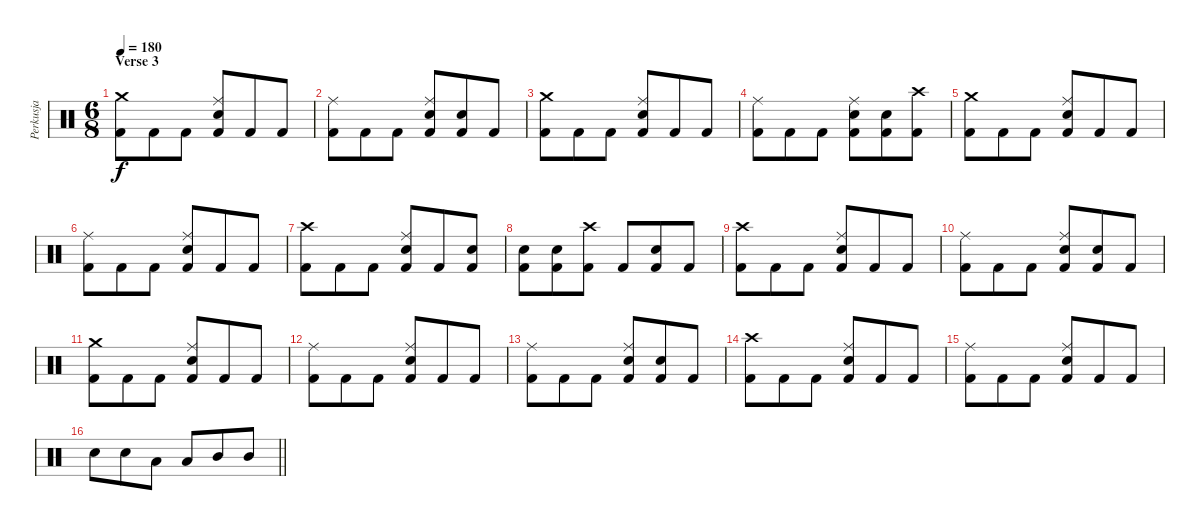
\track ("Perkusja" "Perkusja") {instrument percussion}
\staff {score}
\articulation defaults
\ts (6 8)
\section ("" "Verse 3")
\tempo 180
\clef neutral
\ks c
("Crash medium (hit)" "Kick (hit) 2").8{dy f} "Kick (hit) 2".8 "Kick (hit) 2".8 ("Ride (middle)" "Snare (hit) 2" "Kick (hit) 2").8 "Kick (hit) 2".8 "Kick (hit) 2".8 |
("Ride (middle)" "Kick (hit) 2").8 "Kick (hit) 2".8 "Kick (hit) 2".8 ("Ride (middle)" "Snare (hit) 2" "Kick (hit) 2").8 ("Snare (hit) 2" "Kick (hit) 2").8 "Kick (hit) 2".8 |
("Crash medium (hit)" "Kick (hit) 2").8 "Kick (hit) 2".8 "Kick (hit) 2".8 ("Ride (middle)" "Snare (hit) 2" "Kick (hit) 2").8 "Kick (hit) 2".8 "Kick (hit) 2".8 |
("Ride (middle)" "Kick (hit) 2").8 "Kick (hit) 2".8 "Kick (hit) 2".8 ("Ride (middle)" "Snare (hit) 2" "Kick (hit) 2").8 ("Snare (hit) 2" "Kick (hit) 2").8 ("Crash high (hit)" "Kick (hit) 2").8 |
("Crash medium (hit)" "Kick (hit) 2").8 "Kick (hit) 2".8 "Kick (hit) 2".8 ("Ride (middle)" "Snare (hit) 2" "Kick (hit) 2").8 "Kick (hit) 2".8 "Kick (hit) 2".8 |
("Ride (middle)" "Kick (hit) 2").8 "Kick (hit) 2".8 "Kick (hit) 2".8 ("Ride (middle)" "Snare (hit) 2" "Kick (hit) 2").8 "Kick (hit) 2".8 "Kick (hit) 2".8 |
("Crash high (hit)" "Kick (hit) 2").8 "Kick (hit) 2".8 "Kick (hit) 2".8 ("Ride (middle)" "Snare (hit) 2" "Kick (hit) 2").8 "Kick (hit) 2".8 ("Snare (hit) 2" "Kick (hit) 2").8 |
("Snare (hit) 2" "Kick (hit) 2").8 ("Snare (hit) 2" "Kick (hit) 2").8 ("Crash high (hit)" "Kick (hit) 2").8 "Kick (hit) 2".8 ("Snare (hit) 2" "Kick (hit) 2").8 "Kick (hit) 2".8 |
("Crash high (hit)" "Kick (hit) 2").8 "Kick (hit) 2".8 "Kick (hit) 2".8 ("Ride (middle)" "Snare (hit) 2" "Kick (hit) 2").8 "Kick (hit) 2".8 "Kick (hit) 2".8 |
("Ride (middle)" "Kick (hit) 2").8 "Kick (hit) 2".8 "Kick (hit) 2".8 ("Ride (middle)" "Snare (hit) 2" "Kick (hit) 2").8 ("Snare (hit) 2" "Kick (hit) 2").8 "Kick (hit) 2".8 |
("Crash medium (hit)" "Kick (hit) 2").8 "Kick (hit) 2".8 "Kick (hit) 2".8 ("Ride (middle)" "Snare (hit) 2" "Kick (hit) 2").8 "Kick (hit) 2".8 "Kick (hit) 2".8 |
("Ride (middle)" "Kick (hit) 2").8 "Kick (hit) 2".8 "Kick (hit) 2".8 ("Ride (middle)" "Snare (hit) 2" "Kick (hit) 2").8 "Kick (hit) 2".8 "Kick (hit) 2".8 |
("Ride (middle)" "Kick (hit) 2").8 "Kick (hit) 2".8 "Kick (hit) 2".8 ("Ride (middle)" "Snare (hit) 2" "Kick (hit) 2").8 ("Snare (hit) 2" "Kick (hit) 2").8 "Kick (hit) 2".8 |
("Crash high (hit)" "Kick (hit) 2").8 "Kick (hit) 2".8 "Kick (hit) 2".8 ("Ride (middle)" "Snare (hit) 2" "Kick (hit) 2").8 "Kick (hit) 2".8 "Kick (hit) 2".8 |
("Ride (middle)" "Kick (hit) 2").8 "Kick (hit) 2".8 "Kick (hit) 2".8 ("Ride (middle)" "Snare (hit) 2" "Kick (hit) 2").8 "Kick (hit) 2".8 "Kick (hit) 2".8 |
\barLineRight lightlight "Snare (hit) 2".8 "Snare (hit) 2".8 "Low Tom (hit)".8 "Low Tom (hit)".8 "Mid Tom (hit)".8 "Mid Tom (hit)".8
